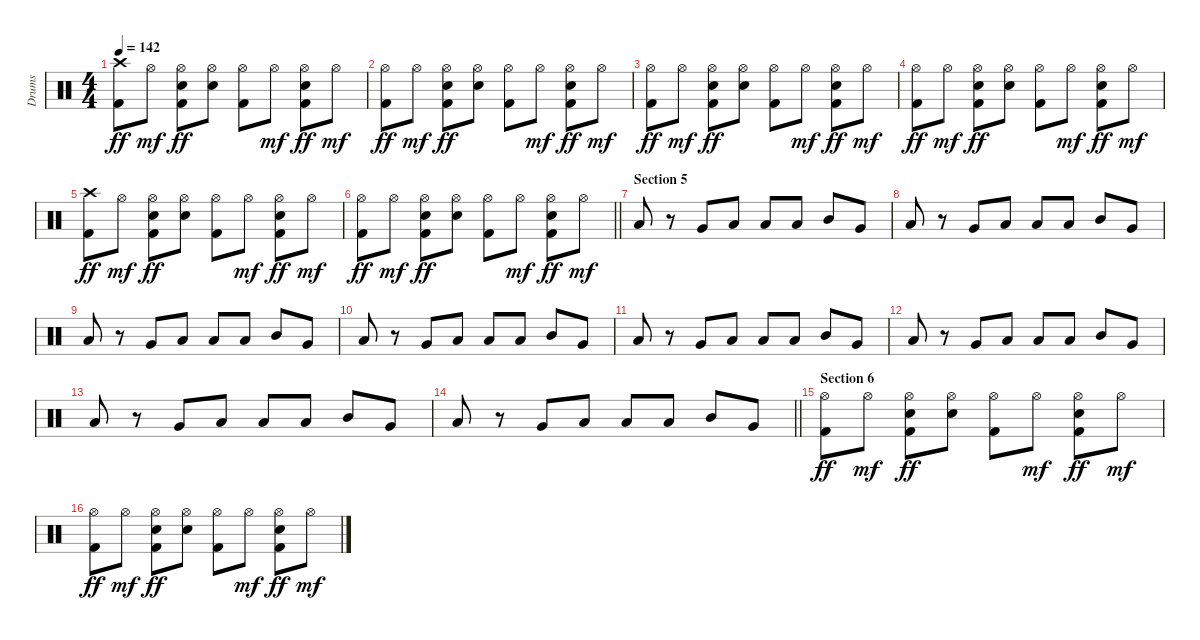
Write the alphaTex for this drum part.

\track ("Drums" "Drums") {instrument percussion}
\staff {score}
\articulation defaults
\ts (4 4)
\tempo 142
\clef neutral
\ks c
("Crash high (hit)" "Kick (hit) 2").8{dy ff} "Hi-Hat (open)".8{dy mf} ("Hi-Hat (open)" "Snare (hit) 2" "Kick (hit) 2").8{dy ff} ("Hi-Hat (open)" "Snare (hit) 2").8 ("Hi-Hat (open)" "Kick (hit) 2").8 "Hi-Hat (open)".8{dy mf} ("Hi-Hat (open)" "Snare (hit) 2" "Kick (hit) 2").8{dy ff} "Hi-Hat (open)".8{dy mf} |
("Hi-Hat (open)" "Kick (hit) 2").8{dy ff} "Hi-Hat (open)".8{dy mf} ("Hi-Hat (open)" "Snare (hit) 2" "Kick (hit) 2").8{dy ff} ("Hi-Hat (open)" "Snare (hit) 2").8 ("Hi-Hat (open)" "Kick (hit) 2").8 "Hi-Hat (open)".8{dy mf} ("Hi-Hat (open)" "Snare (hit) 2" "Kick (hit) 2").8{dy ff} "Hi-Hat (open)".8{dy mf} |
("Hi-Hat (open)" "Kick (hit) 2").8{dy ff} "Hi-Hat (open)".8{dy mf} ("Hi-Hat (open)" "Snare (hit) 2" "Kick (hit) 2").8{dy ff} ("Hi-Hat (open)" "Snare (hit) 2").8 ("Hi-Hat (open)" "Kick (hit) 2").8 "Hi-Hat (open)".8{dy mf} ("Hi-Hat (open)" "Snare (hit) 2" "Kick (hit) 2").8{dy ff} "Hi-Hat (open)".8{dy mf} |
("Hi-Hat (open)" "Kick (hit) 2").8{dy ff} "Hi-Hat (open)".8{dy mf} ("Hi-Hat (open)" "Snare (hit) 2" "Kick (hit) 2").8{dy ff} ("Hi-Hat (open)" "Snare (hit) 2").8 ("Hi-Hat (open)" "Kick (hit) 2").8 "Hi-Hat (open)".8{dy mf} ("Hi-Hat (open)" "Snare (hit) 2" "Kick (hit) 2").8{dy ff} "Hi-Hat (open)".8{dy mf} |
("Crash high (hit)" "Kick (hit) 2").8{dy ff} "Hi-Hat (open)".8{dy mf} ("Hi-Hat (open)" "Snare (hit) 2" "Kick (hit) 2").8{dy ff} ("Hi-Hat (open)" "Snare (hit) 2").8 ("Hi-Hat (open)" "Kick (hit) 2").8 "Hi-Hat (open)".8{dy mf} ("Hi-Hat (open)" "Snare (hit) 2" "Kick (hit) 2").8{dy ff} "Hi-Hat (open)".8{dy mf} |
\barLineRight lightlight
("Hi-Hat (open)" "Kick (hit) 2").8{dy ff} "Hi-Hat (open)".8{dy mf} ("Hi-Hat (open)" "Snare (hit) 2" "Kick (hit) 2").8{dy ff} ("Hi-Hat (open)" "Snare (hit) 2").8 ("Hi-Hat (open)" "Kick (hit) 2").8 "Hi-Hat (open)".8{dy mf} ("Hi-Hat (open)" "Snare (hit) 2" "Kick (hit) 2").8{dy ff} "Hi-Hat (open)".8{dy mf} |
\section ("" "Section 5")
"Low Tom (hit)".8 r.8 "Very Low Tom (hit)".8 "Low Tom (hit)".8 "Low Floor Tom (hit)".8 "Low Floor Tom (hit)".8 "Mid Tom (hit)".8 "Very Low Tom (hit)".8 |
"Low Tom (hit)".8 r.8 "Very Low Tom (hit)".8 "Low Tom (hit)".8 "Low Floor Tom (hit)".8 "Low Floor Tom (hit)".8 "Mid Tom (hit)".8 "Very Low Tom (hit)".8 |
"Low Tom (hit)".8 r.8 "Very Low Tom (hit)".8 "Low Tom (hit)".8 "Low Floor Tom (hit)".8 "Low Floor Tom (hit)".8 "Mid Tom (hit)".8 "Very Low Tom (hit)".8 |
"Low Tom (hit)".8 r.8 "Very Low Tom (hit)".8 "Low Tom (hit)".8 "Low Floor Tom (hit)".8 "Low Floor Tom (hit)".8 "Mid Tom (hit)".8 "Very Low Tom (hit)".8 |
"Low Tom (hit)".8 r.8 "Very Low Tom (hit)".8 "Low Tom (hit)".8 "Low Floor Tom (hit)".8 "Low Floor Tom (hit)".8 "Mid Tom (hit)".8 "Very Low Tom (hit)".8 |
"Low Tom (hit)".8 r.8 "Very Low Tom (hit)".8 "Low Tom (hit)".8 "Low Floor Tom (hit)".8 "Low Floor Tom (hit)".8 "Mid Tom (hit)".8 "Very Low Tom (hit)".8 |
"Low Tom (hit)".8 r.8 "Very Low Tom (hit)".8 "Low Tom (hit)".8 "Low Floor Tom (hit)".8 "Low Floor Tom (hit)".8 "Mid Tom (hit)".8 "Very Low Tom (hit)".8 |
\barLineRight lightlight "Low Tom (hit)".8
r.8 "Very Low Tom (hit)".8 "Low Tom (hit)".8 "Low Floor Tom (hit)".8 "Low Floor Tom (hit)".8 "Mid Tom (hit)".8 "Very Low Tom (hit)".8 |
\section ("" "Section 6")
("Hi-Hat (open)" "Kick (hit) 2").8{dy ff} "Hi-Hat (open)".8{dy mf} ("Hi-Hat (open)" "Snare (hit) 2" "Kick (hit) 2").8{dy ff} ("Hi-Hat (open)" "Snare (hit) 2").8 ("Hi-Hat (open)" "Kick (hit) 2").8 "Hi-Hat (open)".8{dy mf} ("Hi-Hat (open)" "Snare (hit) 2" "Kick (hit) 2").8{dy ff} "Hi-Hat (open)".8{dy mf} |
("Hi-Hat (open)" "Kick (hit) 2").8{dy ff} "Hi-Hat (open)".8{dy mf} ("Hi-Hat (open)" "Snare (hit) 2" "Kick (hit) 2").8{dy ff} ("Hi-Hat (open)" "Snare (hit) 2").8 ("Hi-Hat (open)" "Kick (hit) 2").8 "Hi-Hat (open)".8{dy mf} ("Hi-Hat (open)" "Snare (hit) 2" "Kick (hit) 2").8{dy ff} "Hi-Hat (open)".8{dy mf}
